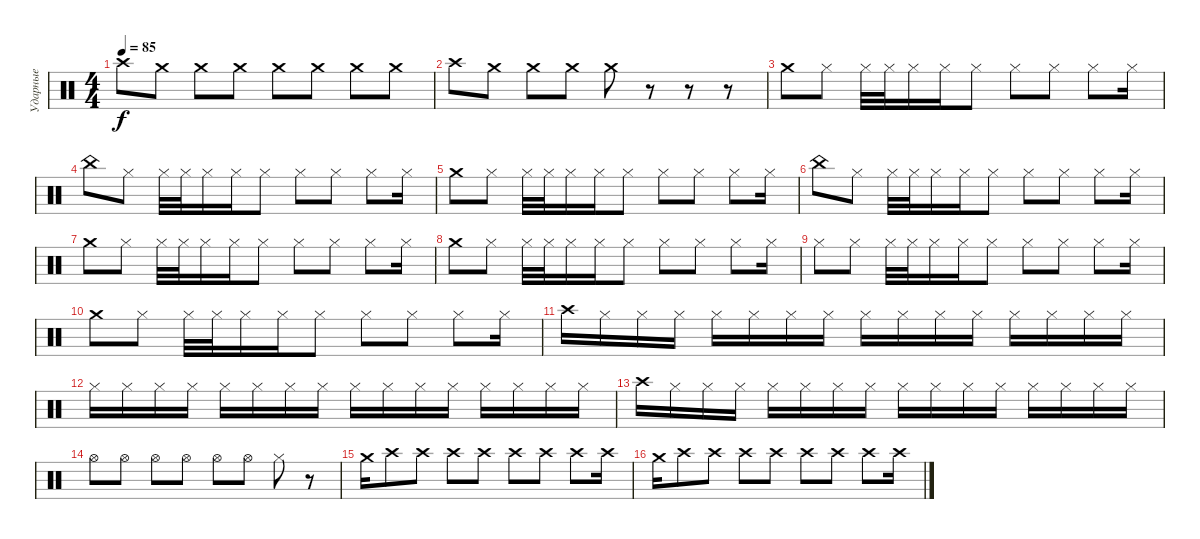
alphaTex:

\track ("Ударные" "Ударные") {instrument percussion}
\staff {score}
\articulation defaults
\ts (4 4)
\tempo 85
\clef neutral
\ks c "Crash high (hit)".8{dy f} "Crash medium (hit)".8 "Crash medium (hit)".8 "Crash medium (hit)".8 "Crash medium (hit)".8 "Crash medium (hit)".8 "Crash medium (hit)".8 "Crash medium (hit)".8
|
"Crash high (hit)".8 "Crash medium (hit)".8 "Crash medium (hit)".8 "Crash medium (hit)".8 "Crash medium (hit)".8 r.8 r.8 r.8 |
"Crash medium (hit)".8 "Hi-Hat (closed)".8 "Hi-Hat (closed)".32 "Hi-Hat (closed)".32 "Hi-Hat (closed)".16 "Hi-Hat (closed)".16 "Hi-Hat (closed)".8 "Hi-Hat (closed)".8 "Hi-Hat (closed)".8 "Hi-Hat (closed)".8 "Hi-Hat (closed)".16 |
"China (hit)".8 "Hi-Hat (closed)".8 "Hi-Hat (closed)".32 "Hi-Hat (closed)".32 "Hi-Hat (closed)".16 "Hi-Hat (closed)".16 "Hi-Hat (closed)".8 "Hi-Hat (closed)".8 "Hi-Hat (closed)".8 "Hi-Hat (closed)".8 "Hi-Hat (closed)".16 |
"Crash medium (hit)".8 "Hi-Hat (closed)".8 "Hi-Hat (closed)".32 "Hi-Hat (closed)".32 "Hi-Hat (closed)".16 "Hi-Hat (closed)".16 "Hi-Hat (closed)".8 "Hi-Hat (closed)".8 "Hi-Hat (closed)".8 "Hi-Hat (closed)".8 "Hi-Hat (closed)".16 |
"China (hit)".8 "Hi-Hat (closed)".8 "Hi-Hat (closed)".32 "Hi-Hat (closed)".32 "Hi-Hat (closed)".16 "Hi-Hat (closed)".16 "Hi-Hat (closed)".8 "Hi-Hat (closed)".8 "Hi-Hat (closed)".8 "Hi-Hat (closed)".8 "Hi-Hat (closed)".16 |
"Crash medium (hit)".8 "Hi-Hat (closed)".8 "Hi-Hat (closed)".32 "Hi-Hat (closed)".32 "Hi-Hat (closed)".16 "Hi-Hat (closed)".16 "Hi-Hat (closed)".8 "Hi-Hat (closed)".8 "Hi-Hat (closed)".8 "Hi-Hat (closed)".8 "Hi-Hat (closed)".16 |
"Crash medium (hit)".8 "Hi-Hat (closed)".8 "Hi-Hat (closed)".32 "Hi-Hat (closed)".32 "Hi-Hat (closed)".16 "Hi-Hat (closed)".16 "Hi-Hat (closed)".8 "Hi-Hat (closed)".8 "Hi-Hat (closed)".8 "Hi-Hat (closed)".8 "Hi-Hat (closed)".16 |
"Hi-Hat (closed)".8 "Hi-Hat (closed)".8 "Hi-Hat (closed)".32 "Hi-Hat (closed)".32 "Hi-Hat (closed)".16 "Hi-Hat (closed)".16 "Hi-Hat (closed)".8 "Hi-Hat (closed)".8 "Hi-Hat (closed)".8 "Hi-Hat (closed)".8 "Hi-Hat (closed)".16 |
"Crash medium (hit)".8 "Hi-Hat (closed)".8 "Hi-Hat (closed)".32 "Hi-Hat (closed)".32 "Hi-Hat (closed)".16 "Hi-Hat (closed)".16 "Hi-Hat (closed)".8 "Hi-Hat (closed)".8 "Hi-Hat (closed)".8 "Hi-Hat (closed)".8 "Hi-Hat (closed)".16 |
"Crash high (hit)".16 "Hi-Hat (closed)".16 "Hi-Hat (closed)".16 "Hi-Hat (closed)".16 "Hi-Hat (closed)".16 "Hi-Hat (closed)".16 "Hi-Hat (closed)".16 "Hi-Hat (closed)".16 "Hi-Hat (closed)".16 "Hi-Hat (closed)".16 "Hi-Hat (closed)".16 "Hi-Hat (closed)".16 "Hi-Hat (closed)".16 "Hi-Hat (closed)".16 "Hi-Hat (closed)".16 "Hi-Hat (closed)".16 |
"Hi-Hat (closed)".16 "Hi-Hat (closed)".16 "Hi-Hat (closed)".16 "Hi-Hat (closed)".16 "Hi-Hat (closed)".16 "Hi-Hat (closed)".16 "Hi-Hat (closed)".16 "Hi-Hat (closed)".16 "Hi-Hat (closed)".16 "Hi-Hat (closed)".16 "Hi-Hat (closed)".16 "Hi-Hat (closed)".16 "Hi-Hat (closed)".16 "Hi-Hat (closed)".16 "Hi-Hat (closed)".16 "Hi-Hat (closed)".16 |
"Crash high (hit)".16 "Hi-Hat (closed)".16 "Hi-Hat (closed)".16 "Hi-Hat (closed)".16 "Hi-Hat (closed)".16 "Hi-Hat (closed)".16 "Hi-Hat (closed)".16 "Hi-Hat (closed)".16 "Hi-Hat (closed)".16 "Hi-Hat (closed)".16 "Hi-Hat (closed)".16 "Hi-Hat (closed)".16 "Hi-Hat (closed)".16 "Hi-Hat (closed)".16 "Hi-Hat (closed)".16 "Hi-Hat (closed)".16 |
"Hi-Hat (open)".8 "Hi-Hat (open)".8 "Hi-Hat (open)".8 "Hi-Hat (open)".8 "Hi-Hat (open)".8 "Hi-Hat (open)".8 "Hi-Hat (closed)".8 r.8 |
"Crash medium (hit)".16 "Crash high (hit)".8 "Crash high (hit)".8 "Crash high (hit)".8 "Crash high (hit)".8 "Crash high (hit)".8 "Crash high (hit)".8 "Crash high (hit)".8 "Crash high (hit)".16 |
"Crash medium (hit)".16 "Crash high (hit)".8 "Crash high (hit)".8 "Crash high (hit)".8 "Crash high (hit)".8 "Crash high (hit)".8 "Crash high (hit)".8 "Crash high (hit)".8 "Crash high (hit)".16
